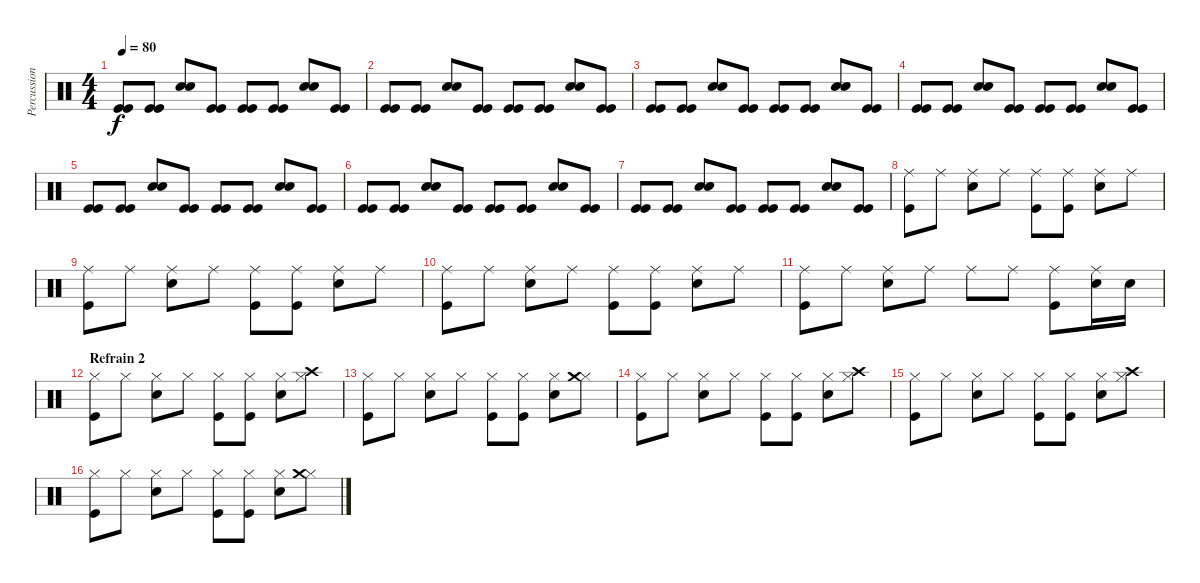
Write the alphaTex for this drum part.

\track ("Percussions" "Percussion") {instrument percussion}
\staff {score}
\articulation defaults
\ts (4 4)
\tempo 80
\clef neutral
\ks c
("Kick (hit)" "Kick (hit)").8{dy f} ("Kick (hit)" "Kick (hit)").8 ("Snare (hit) 2" "Electric Snare (hit)").8{bd 240} ("Kick (hit)" "Kick (hit)").8 ("Kick (hit)" "Kick (hit)").8 ("Kick (hit)" "Kick (hit)").8 ("Snare (hit) 2" "Electric Snare (hit)").8{bd 240} ("Kick (hit)" "Kick (hit)").8 |
("Kick (hit)" "Kick (hit)").8 ("Kick (hit)" "Kick (hit)").8 ("Snare (hit) 2" "Electric Snare (hit)").8{bd 240} ("Kick (hit)" "Kick (hit)").8 ("Kick (hit)" "Kick (hit)").8 ("Kick (hit)" "Kick (hit)").8 ("Snare (hit) 2" "Electric Snare (hit)").8{bd 240} ("Kick (hit)" "Kick (hit)").8 |
("Kick (hit)" "Kick (hit)").8 ("Kick (hit)" "Kick (hit)").8 ("Snare (hit) 2" "Electric Snare (hit)").8{bd 240} ("Kick (hit)" "Kick (hit)").8 ("Kick (hit)" "Kick (hit)").8 ("Kick (hit)" "Kick (hit)").8 ("Snare (hit) 2" "Electric Snare (hit)").8{bd 240} ("Kick (hit)" "Kick (hit)").8 |
("Kick (hit)" "Kick (hit)").8 ("Kick (hit)" "Kick (hit)").8 ("Snare (hit) 2" "Electric Snare (hit)").8{bd 240} ("Kick (hit)" "Kick (hit)").8 ("Kick (hit)" "Kick (hit)").8 ("Kick (hit)" "Kick (hit)").8 ("Snare (hit) 2" "Electric Snare (hit)").8{bd 240} ("Kick (hit)" "Kick (hit)").8 |
("Kick (hit)" "Kick (hit)").8 ("Kick (hit)" "Kick (hit)").8 ("Snare (hit) 2" "Electric Snare (hit)").8{bd 240} ("Kick (hit)" "Kick (hit)").8 ("Kick (hit)" "Kick (hit)").8 ("Kick (hit)" "Kick (hit)").8 ("Snare (hit) 2" "Electric Snare (hit)").8{bd 240} ("Kick (hit)" "Kick (hit)").8 |
("Kick (hit)" "Kick (hit)").8 ("Kick (hit)" "Kick (hit)").8 ("Snare (hit) 2" "Electric Snare (hit)").8{bd 240} ("Kick (hit)" "Kick (hit)").8 ("Kick (hit)" "Kick (hit)").8 ("Kick (hit)" "Kick (hit)").8 ("Snare (hit) 2" "Electric Snare (hit)").8{bd 240} ("Kick (hit)" "Kick (hit)").8 |
("Kick (hit)" "Kick (hit)").8 ("Kick (hit)" "Kick (hit)").8 ("Snare (hit) 2" "Electric Snare (hit)").8{bd 240} ("Kick (hit)" "Kick (hit)").8 ("Kick (hit)" "Kick (hit)").8 ("Kick (hit)" "Kick (hit)").8 ("Snare (hit) 2" "Electric Snare (hit)").8{bd 240} ("Kick (hit)" "Kick (hit)").8 |
("Ride (middle)" "Kick (hit)").8{volume 16} "Ride (middle)".8 ("Ride (middle)" "Electric Snare (hit)").8 "Ride (middle)".8 ("Ride (middle)" "Kick (hit)").8 ("Ride (middle)" "Kick (hit)").8 ("Ride (middle)" "Electric Snare (hit)").8 "Ride (middle)".8 |
("Ride (middle)" "Kick (hit)").8 "Ride (middle)".8 ("Ride (middle)" "Electric Snare (hit)").8 "Ride (middle)".8 ("Ride (middle)" "Kick (hit)").8 ("Ride (middle)" "Kick (hit)").8 ("Ride (middle)" "Electric Snare (hit)").8 "Ride (middle)".8 |
("Ride (middle)" "Kick (hit)").8 "Ride (middle)".8 ("Ride (middle)" "Electric Snare (hit)").8 "Ride (middle)".8 ("Ride (middle)" "Kick (hit)").8 ("Ride (middle)" "Kick (hit)").8 ("Ride (middle)" "Electric Snare (hit)").8 "Ride (middle)".8 |
("Ride (middle)" "Kick (hit)").8 "Ride (middle)".8 ("Ride (middle)" "Electric Snare (hit)").8 "Ride (middle)".8 "Ride (middle)".8 "Ride (middle)".8 ("Ride (middle)" "Kick (hit)").8 ("Ride (middle)" "Electric Snare (hit)").16{volume 13} "Electric Snare (hit)".16 |
\section ("" "Refrain 2")
("Hi-Hat (closed)" "Kick (hit)").8{volume 16} "Hi-Hat (closed)".8 ("Hi-Hat (closed)" "Electric Snare (hit)").8 "Hi-Hat (closed)".8 ("Hi-Hat (closed)" "Kick (hit)").8 ("Hi-Hat (closed)" "Kick (hit)").8 ("Hi-Hat (closed)" "Electric Snare (hit)").8 ("Hi-Hat (closed)" "Crash high (hit)").8 |
("Hi-Hat (closed)" "Kick (hit)").8{volume 16} "Hi-Hat (closed)".8 ("Hi-Hat (closed)" "Electric Snare (hit)").8 "Hi-Hat (closed)".8 ("Hi-Hat (closed)" "Kick (hit)").8 ("Hi-Hat (closed)" "Kick (hit)").8 ("Hi-Hat (closed)" "Electric Snare (hit)").8 ("Hi-Hat (closed)" "Crash medium (hit)").8 |
("Hi-Hat (closed)" "Kick (hit)").8{volume 16} "Hi-Hat (closed)".8 ("Hi-Hat (closed)" "Electric Snare (hit)").8 "Hi-Hat (closed)".8 ("Hi-Hat (closed)" "Kick (hit)").8 ("Hi-Hat (closed)" "Kick (hit)").8 ("Hi-Hat (closed)" "Electric Snare (hit)").8 ("Hi-Hat (closed)" "Crash high (hit)").8 |
("Hi-Hat (closed)" "Kick (hit)").8{volume 16} "Hi-Hat (closed)".8 ("Hi-Hat (closed)" "Electric Snare (hit)").8 "Hi-Hat (closed)".8 ("Hi-Hat (closed)" "Kick (hit)").8 ("Hi-Hat (closed)" "Kick (hit)").8 ("Hi-Hat (closed)" "Electric Snare (hit)").8 ("Hi-Hat (closed)" "Crash high (hit)").8 |
("Hi-Hat (closed)" "Kick (hit)").8{volume 16} "Hi-Hat (closed)".8 ("Hi-Hat (closed)" "Electric Snare (hit)").8 "Hi-Hat (closed)".8 ("Hi-Hat (closed)" "Kick (hit)").8 ("Hi-Hat (closed)" "Kick (hit)").8 ("Hi-Hat (closed)" "Electric Snare (hit)").8 ("Hi-Hat (closed)" "Crash medium (hit)").8
